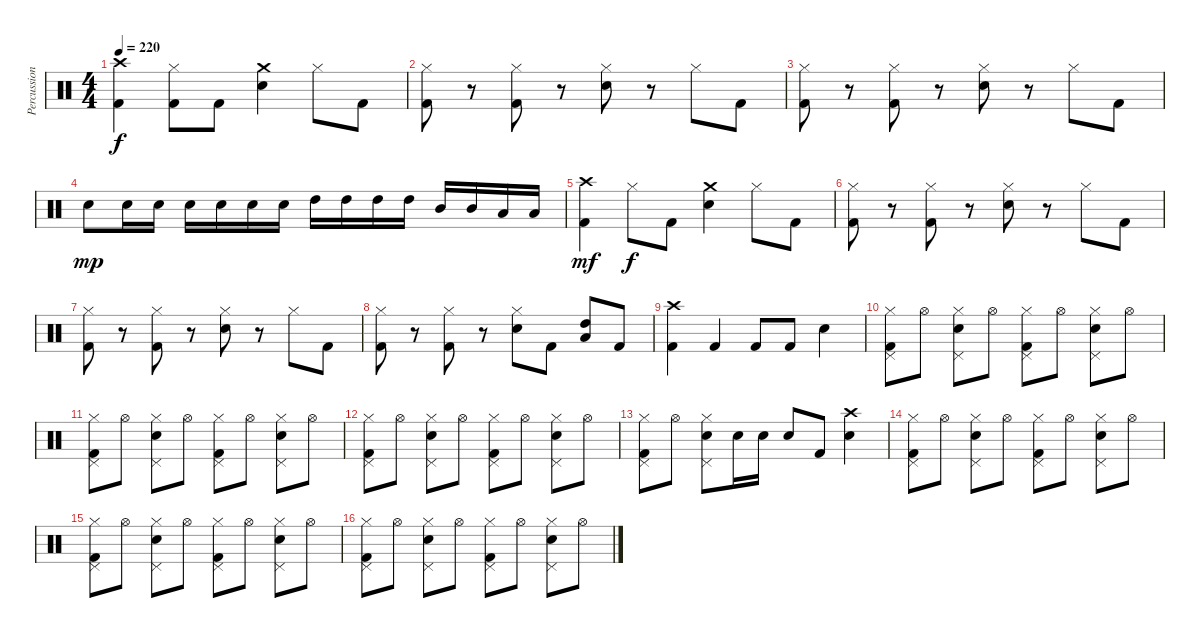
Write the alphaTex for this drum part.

\track ("Percussion" "Percussion") {instrument percussion}
\staff {score}
\articulation defaults
\ts (4 4)
\tempo 220
\clef neutral
\ks c
("Crash high (hit)" "Kick (hit) 2").4{dy f} ("Hi-Hat (closed)" "Kick (hit) 2").8 "Kick (hit) 2".8 ("Crash medium (hit)" "Electric Snare (hit)").4 "Hi-Hat (closed)".8 "Kick (hit) 2".8 |
("Hi-Hat (closed)" "Kick (hit) 2").8 r.8 ("Hi-Hat (closed)" "Kick (hit) 2").8 r.8 ("Hi-Hat (closed)" "Electric Snare (hit)").8 r.8 "Hi-Hat (closed)".8 "Kick (hit) 2".8 |
("Hi-Hat (closed)" "Kick (hit) 2").8 r.8 ("Hi-Hat (closed)" "Kick (hit) 2").8 r.8 ("Hi-Hat (closed)" "Electric Snare (hit)").8 r.8 "Hi-Hat (closed)".8 "Kick (hit) 2".8 |
"Electric Snare (hit)".8{dy mp} "Electric Snare (hit)".16 "Electric Snare (hit)".16 "Electric Snare (hit)".16 "Electric Snare (hit)".16 "Electric Snare (hit)".16 "Electric Snare (hit)".16 "High Tom (hit)".16 "High Tom (hit)".16 "High Tom (hit)".16 "High Tom (hit)".16 "Mid Tom (hit)".16 "Mid Tom (hit)".16 "Low Tom (hit)".16 "Low Tom (hit)".16 |
("Crash high (hit)" "Kick (hit) 2").4{dy mf} "Hi-Hat (closed)".8{dy f} "Kick (hit) 2".8 ("Crash medium (hit)" "Electric Snare (hit)").4 "Hi-Hat (closed)".8 "Kick (hit) 2".8 |
("Hi-Hat (closed)" "Kick (hit) 2").8 r.8 ("Hi-Hat (closed)" "Kick (hit) 2").8 r.8 ("Hi-Hat (closed)" "Electric Snare (hit)").8 r.8 "Hi-Hat (closed)".8 "Kick (hit) 2".8 |
("Hi-Hat (closed)" "Kick (hit) 2").8 r.8 ("Hi-Hat (closed)" "Kick (hit) 2").8 r.8 ("Hi-Hat (closed)" "Electric Snare (hit)").8 r.8 "Hi-Hat (closed)".8 "Kick (hit) 2".8 |
("Hi-Hat (closed)" "Kick (hit) 2").8 r.8 ("Hi-Hat (closed)" "Kick (hit) 2").8 r.8 ("Hi-Hat (closed)" "Electric Snare (hit)").8 "Kick (hit) 2".8 ("Low Tom (hit)" "High Tom (hit)").8 "Kick (hit) 2".8 |
("Crash high (hit)" "Kick (hit) 2").4 "Kick (hit) 2".4 "Kick (hit) 2".8 "Kick (hit) 2".8 "Electric Snare (hit)".4 |
("Hi-Hat (closed)" "Pedal Hi-Hat (hit)" "Kick (hit) 2").8 "Hi-Hat (open)".8 ("Hi-Hat (closed)" "Pedal Hi-Hat (hit)" "Electric Snare (hit)").8 "Hi-Hat (open)".8 ("Hi-Hat (closed)" "Pedal Hi-Hat (hit)" "Kick (hit) 2").8 "Hi-Hat (open)".8 ("Hi-Hat (closed)" "Pedal Hi-Hat (hit)" "Electric Snare (hit)").8 "Hi-Hat (open)".8 |
("Hi-Hat (closed)" "Pedal Hi-Hat (hit)" "Kick (hit) 2").8 "Hi-Hat (open)".8 ("Hi-Hat (closed)" "Pedal Hi-Hat (hit)" "Electric Snare (hit)").8 "Hi-Hat (open)".8 ("Hi-Hat (closed)" "Pedal Hi-Hat (hit)" "Kick (hit) 2").8 "Hi-Hat (open)".8 ("Hi-Hat (closed)" "Pedal Hi-Hat (hit)" "Electric Snare (hit)").8 "Hi-Hat (open)".8 |
("Hi-Hat (closed)" "Pedal Hi-Hat (hit)" "Kick (hit) 2").8 "Hi-Hat (open)".8 ("Hi-Hat (closed)" "Pedal Hi-Hat (hit)" "Electric Snare (hit)").8 "Hi-Hat (open)".8 ("Hi-Hat (closed)" "Pedal Hi-Hat (hit)" "Kick (hit) 2").8 "Hi-Hat (open)".8 ("Hi-Hat (closed)" "Pedal Hi-Hat (hit)" "Electric Snare (hit)").8 "Hi-Hat (open)".8 |
("Hi-Hat (closed)" "Pedal Hi-Hat (hit)" "Kick (hit) 2").8 "Hi-Hat (open)".8 ("Hi-Hat (closed)" "Pedal Hi-Hat (hit)" "Electric Snare (hit)").8 "Electric Snare (hit)".16 "Electric Snare (hit)".16 "Electric Snare (hit)".8 "Kick (hit) 2".8 ("Crash high (hit)" "Electric Snare (hit)").4 |
("Hi-Hat (closed)" "Pedal Hi-Hat (hit)" "Kick (hit) 2").8 "Hi-Hat (open)".8 ("Hi-Hat (closed)" "Pedal Hi-Hat (hit)" "Electric Snare (hit)").8 "Hi-Hat (open)".8 ("Hi-Hat (closed)" "Pedal Hi-Hat (hit)" "Kick (hit) 2").8 "Hi-Hat (open)".8 ("Hi-Hat (closed)" "Pedal Hi-Hat (hit)" "Electric Snare (hit)").8 "Hi-Hat (open)".8 |
("Hi-Hat (closed)" "Pedal Hi-Hat (hit)" "Kick (hit) 2").8 "Hi-Hat (open)".8 ("Hi-Hat (closed)" "Pedal Hi-Hat (hit)" "Electric Snare (hit)").8 "Hi-Hat (open)".8 ("Hi-Hat (closed)" "Pedal Hi-Hat (hit)" "Kick (hit) 2").8 "Hi-Hat (open)".8 ("Hi-Hat (closed)" "Pedal Hi-Hat (hit)" "Electric Snare (hit)").8 "Hi-Hat (open)".8 |
("Hi-Hat (closed)" "Pedal Hi-Hat (hit)" "Kick (hit) 2").8 "Hi-Hat (open)".8 ("Hi-Hat (closed)" "Pedal Hi-Hat (hit)" "Electric Snare (hit)").8 "Hi-Hat (open)".8 ("Hi-Hat (closed)" "Pedal Hi-Hat (hit)" "Kick (hit) 2").8 "Hi-Hat (open)".8 ("Hi-Hat (closed)" "Pedal Hi-Hat (hit)" "Electric Snare (hit)").8 "Hi-Hat (open)".8
